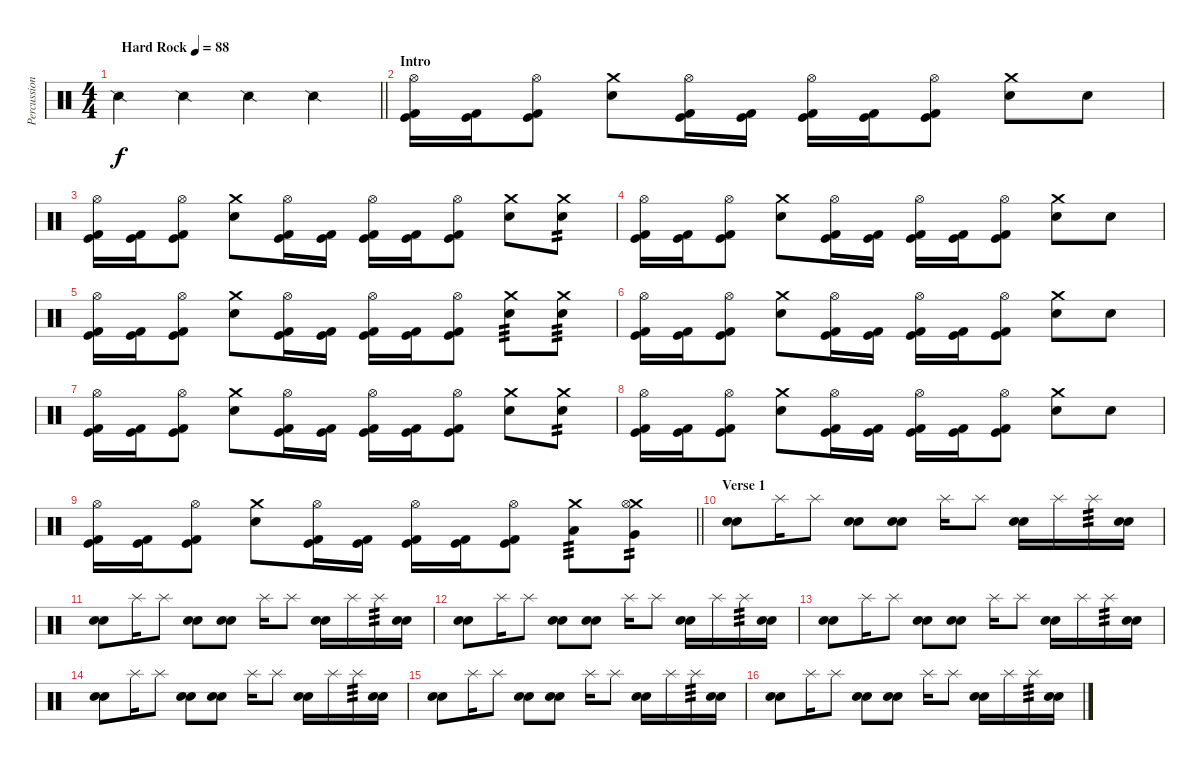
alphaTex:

\track ("Percussion" "Percussion") {instrument percussion}
\staff {score}
\articulation defaults
\ts (4 4)
\tempo (88 "Hard Rock")
\clef neutral
\barLineRight lightlight
\ks c "Snare (side stick) 2".4{dy f} "Snare (side stick) 2".4 "Snare (side stick) 2".4 "Snare (side stick) 2".4
|
\section ("" "Intro")
("Kick (hit) 2" "Kick (hit)" "Hi-Hat (open)").16 ("Kick (hit) 2" "Kick (hit)").16 ("Kick (hit) 2" "Kick (hit)" "Hi-Hat (open)").8 ("Electric Snare (hit)" "Crash medium (hit)").8 ("Kick (hit) 2" "Kick (hit)" "Hi-Hat (open)").16 ("Kick (hit) 2" "Kick (hit)").16 ("Kick (hit) 2" "Kick (hit)" "Hi-Hat (open)").16 ("Kick (hit) 2" "Kick (hit)").16 ("Kick (hit) 2" "Kick (hit)" "Hi-Hat (open)").8 ("Electric Snare (hit)" "Crash medium (hit)").8 "Electric Snare (hit)".8 |
("Kick (hit) 2" "Kick (hit)" "Hi-Hat (open)").16 ("Kick (hit) 2" "Kick (hit)").16 ("Kick (hit) 2" "Kick (hit)" "Hi-Hat (open)").8 ("Electric Snare (hit)" "Crash medium (hit)").8 ("Kick (hit) 2" "Kick (hit)" "Hi-Hat (open)").16 ("Kick (hit) 2" "Kick (hit)").16 ("Kick (hit) 2" "Kick (hit)" "Hi-Hat (open)").16 ("Kick (hit) 2" "Kick (hit)").16 ("Kick (hit) 2" "Kick (hit)" "Hi-Hat (open)").8 ("Electric Snare (hit)" "Crash medium (hit)").8 ("Electric Snare (hit)" "Crash medium (hit)").8{tp 2} |
("Kick (hit) 2" "Kick (hit)" "Hi-Hat (open)").16 ("Kick (hit) 2" "Kick (hit)").16 ("Kick (hit) 2" "Kick (hit)" "Hi-Hat (open)").8 ("Electric Snare (hit)" "Crash medium (hit)").8 ("Kick (hit) 2" "Kick (hit)" "Hi-Hat (open)").16 ("Kick (hit) 2" "Kick (hit)").16 ("Kick (hit) 2" "Kick (hit)" "Hi-Hat (open)").16 ("Kick (hit) 2" "Kick (hit)").16 ("Kick (hit) 2" "Kick (hit)" "Hi-Hat (open)").8 ("Electric Snare (hit)" "Crash medium (hit)").8 "Electric Snare (hit)".8 |
("Kick (hit) 2" "Kick (hit)" "Hi-Hat (open)").16 ("Kick (hit) 2" "Kick (hit)").16 ("Kick (hit) 2" "Kick (hit)" "Hi-Hat (open)").8 ("Electric Snare (hit)" "Crash medium (hit)").8 ("Kick (hit) 2" "Kick (hit)" "Hi-Hat (open)").16 ("Kick (hit) 2" "Kick (hit)").16 ("Kick (hit) 2" "Kick (hit)" "Hi-Hat (open)").16 ("Kick (hit) 2" "Kick (hit)").16 ("Kick (hit) 2" "Kick (hit)" "Hi-Hat (open)").8 ("Electric Snare (hit)" "Crash medium (hit)").8{tp 3} ("Electric Snare (hit)" "Crash medium (hit)").8{tp 3} |
("Kick (hit) 2" "Kick (hit)" "Hi-Hat (open)").16 ("Kick (hit) 2" "Kick (hit)").16 ("Kick (hit) 2" "Kick (hit)" "Hi-Hat (open)").8 ("Electric Snare (hit)" "Crash medium (hit)").8 ("Kick (hit) 2" "Kick (hit)" "Hi-Hat (open)").16 ("Kick (hit) 2" "Kick (hit)").16 ("Kick (hit) 2" "Kick (hit)" "Hi-Hat (open)").16 ("Kick (hit) 2" "Kick (hit)").16 ("Kick (hit) 2" "Kick (hit)" "Hi-Hat (open)").8 ("Electric Snare (hit)" "Crash medium (hit)").8 "Electric Snare (hit)".8 |
("Kick (hit) 2" "Kick (hit)" "Hi-Hat (open)").16 ("Kick (hit) 2" "Kick (hit)").16 ("Kick (hit) 2" "Kick (hit)" "Hi-Hat (open)").8 ("Electric Snare (hit)" "Crash medium (hit)").8 ("Kick (hit) 2" "Kick (hit)" "Hi-Hat (open)").16 ("Kick (hit) 2" "Kick (hit)").16 ("Kick (hit) 2" "Kick (hit)" "Hi-Hat (open)").16 ("Kick (hit) 2" "Kick (hit)").16 ("Kick (hit) 2" "Kick (hit)" "Hi-Hat (open)").8 ("Electric Snare (hit)" "Crash medium (hit)").8 ("Electric Snare (hit)" "Crash medium (hit)").8{tp 2} |
("Kick (hit) 2" "Kick (hit)" "Hi-Hat (open)").16 ("Kick (hit) 2" "Kick (hit)").16 ("Kick (hit) 2" "Kick (hit)" "Hi-Hat (open)").8 ("Electric Snare (hit)" "Crash medium (hit)").8 ("Kick (hit) 2" "Kick (hit)" "Hi-Hat (open)").16 ("Kick (hit) 2" "Kick (hit)").16 ("Kick (hit) 2" "Kick (hit)" "Hi-Hat (open)").16 ("Kick (hit) 2" "Kick (hit)").16 ("Kick (hit) 2" "Kick (hit)" "Hi-Hat (open)").8 ("Electric Snare (hit)" "Crash medium (hit)").8 "Electric Snare (hit)".8 |
\barLineRight lightlight
("Kick (hit) 2" "Kick (hit)" "Hi-Hat (open)").16 ("Kick (hit) 2" "Kick (hit)").16 ("Kick (hit) 2" "Kick (hit)" "Hi-Hat (open)").8 ("Electric Snare (hit)" "Crash medium (hit)").8 ("Kick (hit) 2" "Kick (hit)" "Hi-Hat (open)").16 ("Kick (hit) 2" "Kick (hit)").16 ("Kick (hit) 2" "Kick (hit)" "Hi-Hat (open)").16 ("Kick (hit) 2" "Kick (hit)").16 ("Kick (hit) 2" "Kick (hit)" "Hi-Hat (open)").8 ("Low Tom (hit)" "Crash medium (hit)").8{tp 3} ("Very Low Tom (hit)" "Crash medium (hit)" "Hi-Hat (open)").8{tp 2} |
\section ("" "Verse 1")
("Electric Snare (hit)" "Snare (hit) 2").8 "Splash (hit)".16 "Splash (hit)".8 ("Electric Snare (hit)" "Snare (hit) 2").8 ("Electric Snare (hit)" "Snare (hit) 2").8 "Splash (hit)".16 "Splash (hit)".8 ("Electric Snare (hit)" "Snare (hit) 2").16 "Splash (hit)".16 "Splash (hit)".16{tp 3} ("Electric Snare (hit)" "Snare (hit) 2").16 |
("Electric Snare (hit)" "Snare (hit) 2").8 "Splash (hit)".16 "Splash (hit)".8 ("Electric Snare (hit)" "Snare (hit) 2").8 ("Electric Snare (hit)" "Snare (hit) 2").8 "Splash (hit)".16 "Splash (hit)".8 ("Electric Snare (hit)" "Snare (hit) 2").16 "Splash (hit)".16 "Splash (hit)".16{tp 3} ("Electric Snare (hit)" "Snare (hit) 2").16 |
("Electric Snare (hit)" "Snare (hit) 2").8 "Splash (hit)".16 "Splash (hit)".8 ("Electric Snare (hit)" "Snare (hit) 2").8 ("Electric Snare (hit)" "Snare (hit) 2").8 "Splash (hit)".16 "Splash (hit)".8 ("Electric Snare (hit)" "Snare (hit) 2").16 "Splash (hit)".16 "Splash (hit)".16{tp 3} ("Electric Snare (hit)" "Snare (hit) 2").16 |
("Electric Snare (hit)" "Snare (hit) 2").8 "Splash (hit)".16 "Splash (hit)".8 ("Electric Snare (hit)" "Snare (hit) 2").8 ("Electric Snare (hit)" "Snare (hit) 2").8 "Splash (hit)".16 "Splash (hit)".8 ("Electric Snare (hit)" "Snare (hit) 2").16 "Splash (hit)".16 "Splash (hit)".16{tp 3} ("Electric Snare (hit)" "Snare (hit) 2").16 |
("Electric Snare (hit)" "Snare (hit) 2").8 "Splash (hit)".16 "Splash (hit)".8 ("Electric Snare (hit)" "Snare (hit) 2").8 ("Electric Snare (hit)" "Snare (hit) 2").8 "Splash (hit)".16 "Splash (hit)".8 ("Electric Snare (hit)" "Snare (hit) 2").16 "Splash (hit)".16 "Splash (hit)".16{tp 3} ("Electric Snare (hit)" "Snare (hit) 2").16 |
("Electric Snare (hit)" "Snare (hit) 2").8 "Splash (hit)".16 "Splash (hit)".8 ("Electric Snare (hit)" "Snare (hit) 2").8 ("Electric Snare (hit)" "Snare (hit) 2").8 "Splash (hit)".16 "Splash (hit)".8 ("Electric Snare (hit)" "Snare (hit) 2").16 "Splash (hit)".16 "Splash (hit)".16{tp 3} ("Electric Snare (hit)" "Snare (hit) 2").16 |
("Electric Snare (hit)" "Snare (hit) 2").8 "Splash (hit)".16 "Splash (hit)".8 ("Electric Snare (hit)" "Snare (hit) 2").8 ("Electric Snare (hit)" "Snare (hit) 2").8 "Splash (hit)".16 "Splash (hit)".8 ("Electric Snare (hit)" "Snare (hit) 2").16 "Splash (hit)".16 "Splash (hit)".16{tp 3} ("Electric Snare (hit)" "Snare (hit) 2").16
